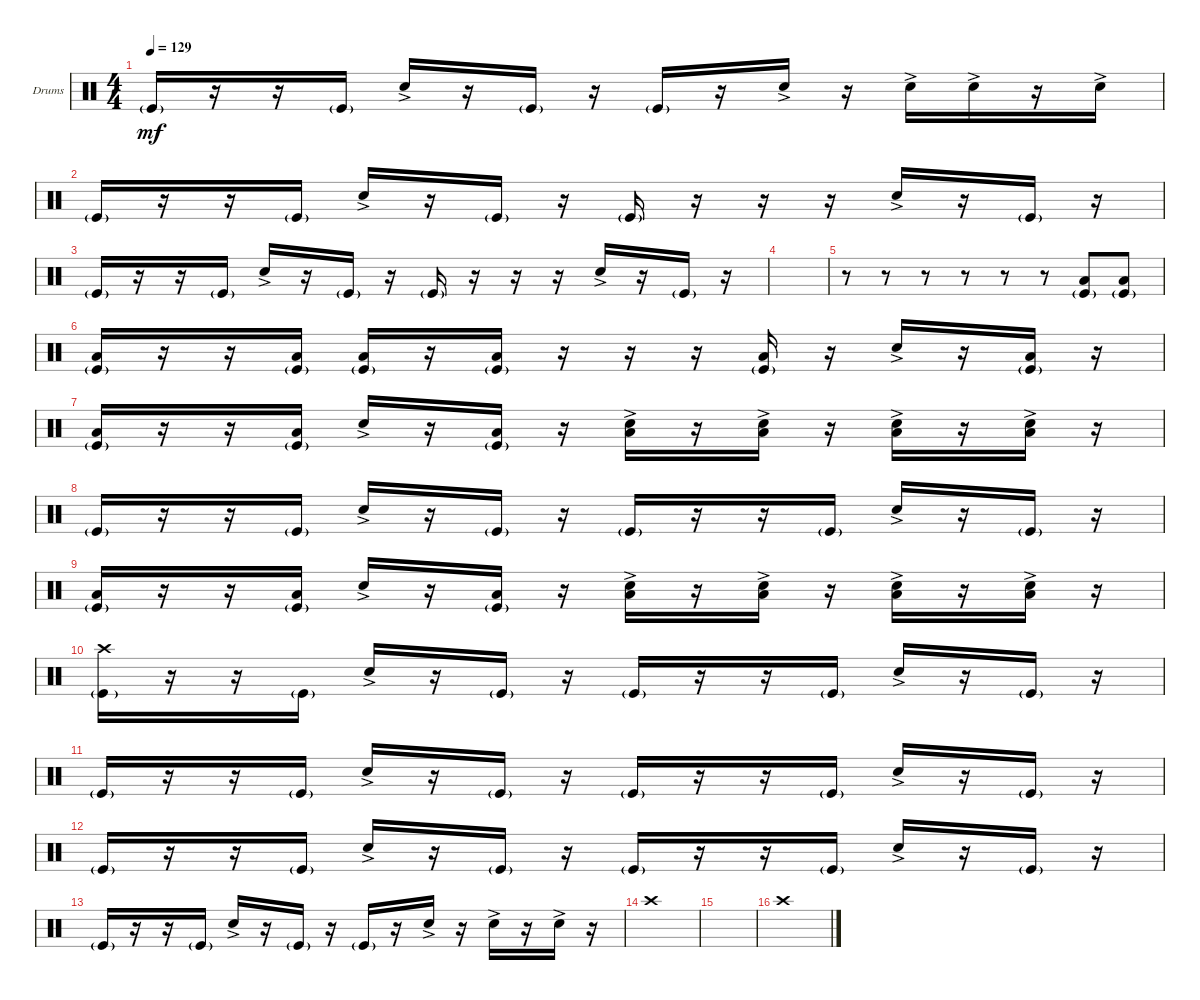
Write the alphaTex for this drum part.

\defaultSystemsLayout 4
\bracketExtendMode groupsimilarinstruments
\firstSystemTrackNameOrientation horizontal
\otherSystemsTrackNameOrientation horizontal
\track ("Drums" "Drums") {instrument percussion}
\staff {score}
\articulation defaults
\ts (4 4)
\tempo 129
\clef neutral
\ks c "Kick (hit)"{g}.16{dy mf}
r.16 r.16 "Kick (hit)"{g}.16 "Snare (hit) 2"{ac}.16 r.16 "Kick (hit)"{g}.16 r.16 "Kick (hit)"{g}.16 r.16 "Snare (hit) 2"{ac}.16 r.16 "Snare (hit) 2"{ac}.16 "Snare (hit) 2"{ac}.16 r.16 "Snare (hit) 2"{ac}.16 |
"Kick (hit)"{g}.16 r.16 r.16 "Kick (hit)"{g}.16 "Snare (hit) 2"{ac}.16 r.16 "Kick (hit)"{g}.16 r.16 "Kick (hit)"{g}.16 r.16 r.16 r.16 "Snare (hit) 2"{ac}.16 r.16 "Kick (hit)"{g}.16 r.16 |
"Kick (hit)"{g}.16 r.16 r.16 "Kick (hit)"{g}.16 "Snare (hit) 2"{ac}.16 r.16 "Kick (hit)"{g}.16 r.16 "Kick (hit)"{g}.16 r.16 r.16 r.16 "Snare (hit) 2"{ac}.16 r.16 "Kick (hit)"{g}.16 r.16 |
|
r.8 r.8 r.8 r.8 r.8 r.8 ("Kick (hit)"{g} "Low Tom (hit)").8 ("Kick (hit)"{g} "Low Tom (hit)").8 |
("Kick (hit)"{g} "Low Tom (hit)").16 r.16 r.16 ("Kick (hit)"{g} "Low Tom (hit)").16 ("Kick (hit)"{g} "Low Tom (hit)").16 r.16 ("Kick (hit)"{g} "Low Tom (hit)").16 r.16 r.16 r.16 ("Kick (hit)"{g} "Low Tom (hit)").16 r.16 "Snare (hit) 2"{ac}.16 r.16 ("Kick (hit)"{g} "Low Tom (hit)").16 r.16 |
("Kick (hit)"{g} "Low Tom (hit)").16 r.16 r.16 ("Kick (hit)"{g} "Low Tom (hit)").16 "Snare (hit) 2"{ac}.16 r.16 ("Kick (hit)"{g} "Low Tom (hit)").16 r.16 ("Snare (hit) 2"{ac} "Low Tom (hit)").16 r.16 ("Snare (hit) 2"{ac} "Low Tom (hit)").16 r.16 ("Snare (hit) 2"{ac} "Low Tom (hit)").16 r.16 ("Snare (hit) 2"{ac} "Low Tom (hit)").16 r.16 |
"Kick (hit)"{g}.16 r.16 r.16 "Kick (hit)"{g}.16 "Snare (hit) 2"{ac}.16 r.16 "Kick (hit)"{g}.16 r.16 "Kick (hit)"{g}.16 r.16 r.16 "Kick (hit)"{g}.16 "Snare (hit) 2"{ac}.16 r.16 "Kick (hit)"{g}.16 r.16 |
("Kick (hit)"{g} "Low Tom (hit)").16 r.16 r.16 ("Kick (hit)"{g} "Low Tom (hit)").16 "Snare (hit) 2"{ac}.16 r.16 ("Kick (hit)"{g} "Low Tom (hit)").16 r.16 ("Snare (hit) 2"{ac} "Low Tom (hit)").16 r.16 ("Snare (hit) 2"{ac} "Low Tom (hit)").16 r.16 ("Snare (hit) 2"{ac} "Low Tom (hit)").16 r.16 ("Snare (hit) 2"{ac} "Low Tom (hit)").16 r.16 |
("Kick (hit)"{g} "Crash high (hit)").16 r.16 r.16 "Kick (hit)"{g}.16 "Snare (hit) 2"{ac}.16 r.16 "Kick (hit)"{g}.16 r.16 "Kick (hit)"{g}.16 r.16 r.16 "Kick (hit)"{g}.16 "Snare (hit) 2"{ac}.16 r.16 "Kick (hit)"{g}.16 r.16 |
"Kick (hit)"{g}.16 r.16 r.16 "Kick (hit)"{g}.16 "Snare (hit) 2"{ac}.16 r.16 "Kick (hit)"{g}.16 r.16 "Kick (hit)"{g}.16 r.16 r.16 "Kick (hit)"{g}.16 "Snare (hit) 2"{ac}.16 r.16 "Kick (hit)"{g}.16 r.16 |
"Kick (hit)"{g}.16 r.16 r.16 "Kick (hit)"{g}.16 "Snare (hit) 2"{ac}.16 r.16 "Kick (hit)"{g}.16 r.16 "Kick (hit)"{g}.16 r.16 r.16 "Kick (hit)"{g}.16 "Snare (hit) 2"{ac}.16 r.16 "Kick (hit)"{g}.16 r.16 |
"Kick (hit)"{g}.16 r.16 r.16 "Kick (hit)"{g}.16 "Snare (hit) 2"{ac}.16 r.16 "Kick (hit)"{g}.16 r.16 "Kick (hit)"{g}.16 r.16 "Snare (hit) 2"{ac}.16 r.16 "Snare (hit) 2"{ac}.16 r.16 "Snare (hit) 2"{ac}.16 r.16 |
"Crash high (hit)".1 |
|
"Crash high (hit)".1
